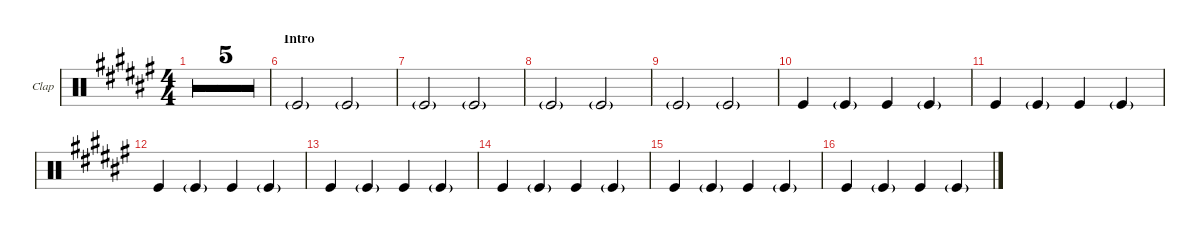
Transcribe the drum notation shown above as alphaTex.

\defaultSystemsLayout 4
\hideDynamics
\bracketExtendMode groupsimilarinstruments
\multiBarRest
\firstSystemTrackNameOrientation horizontal
\otherSystemsTrackNameOrientation horizontal
\track ("Hand Clap" "Clap") {multiBarRest instrument percussion}
\staff {score}
\articulation defaults
\ts (4 4)
\tempo 80
\clef neutral
\ks f#
r.1{dy ppp} |
r.1 |
r.1 |
r.1 |
r.1 |
\section ("" "Intro")
"Kick (hit)"{g}.2 "Kick (hit)"{g}.2 |
"Kick (hit)"{g}.2 "Kick (hit)"{g}.2 |
"Kick (hit)"{g}.2 "Kick (hit)"{g}.2 |
"Kick (hit)"{g}.2 "Kick (hit)"{g}.2 |
"Kick (hit)".4{dy pp} "Kick (hit)"{g}.4{dy ppp} "Kick (hit)".4{dy pp} "Kick (hit)"{g}.4{dy ppp} |
"Kick (hit)".4{dy pp} "Kick (hit)"{g}.4{dy ppp} "Kick (hit)".4{dy pp} "Kick (hit)"{g}.4{dy ppp} |
"Kick (hit)".4{dy pp} "Kick (hit)"{g}.4{dy ppp} "Kick (hit)".4{dy pp} "Kick (hit)"{g}.4{dy ppp} |
"Kick (hit)".4{dy pp} "Kick (hit)"{g}.4{dy ppp} "Kick (hit)".4{dy pp} "Kick (hit)"{g}.4{dy ppp} |
"Kick (hit)".4{dy pp} "Kick (hit)"{g}.4{dy ppp} "Kick (hit)".4{dy pp} "Kick (hit)"{g}.4{dy ppp} |
"Kick (hit)".4{dy pp} "Kick (hit)"{g}.4{dy ppp} "Kick (hit)".4{dy pp} "Kick (hit)"{g}.4{dy ppp} |
"Kick (hit)".4{dy pp} "Kick (hit)"{g}.4{dy ppp} "Kick (hit)".4{dy pp} "Kick (hit)"{g}.4{dy ppp}
